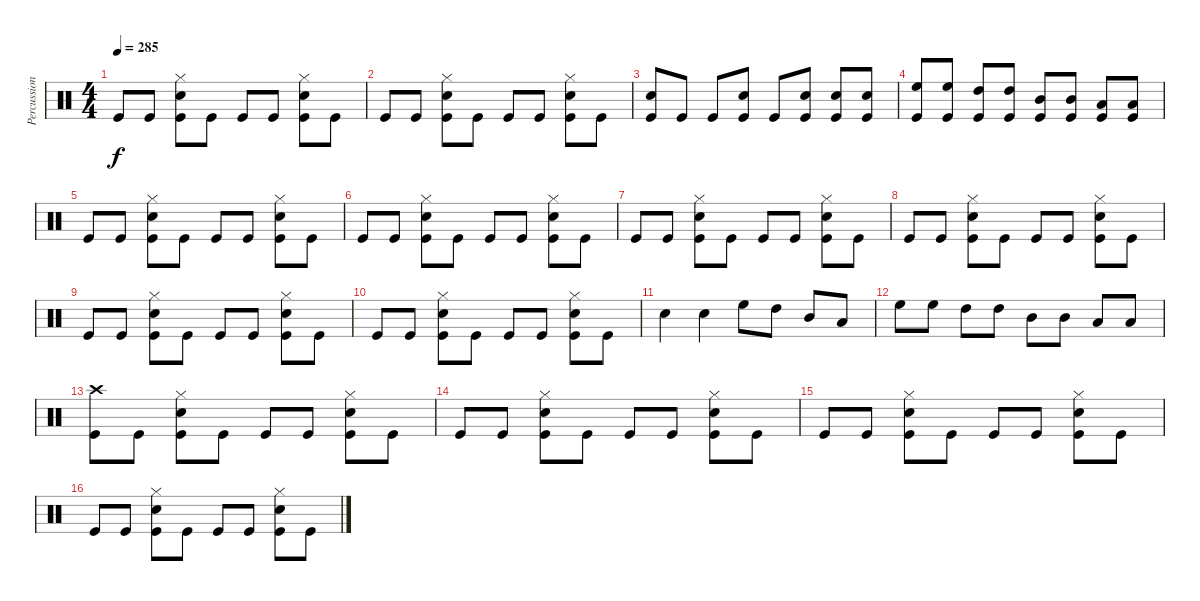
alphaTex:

\track ("Percussion" "Percussion") {instrument percussion}
\staff {score}
\articulation defaults
\ts (4 4)
\tempo 285
\clef neutral
\ks c "Kick (hit)".8{dy f} "Kick (hit)".8
("Snare (hit) 2" "Hi-Hat (closed)" "Kick (hit)").8 "Kick (hit)".8 "Kick (hit)".8 "Kick (hit)".8 ("Snare (hit) 2" "Hi-Hat (closed)" "Kick (hit)").8 "Kick (hit)".8 |
"Kick (hit)".8 "Kick (hit)".8 ("Snare (hit) 2" "Hi-Hat (closed)" "Kick (hit)").8 "Kick (hit)".8 "Kick (hit)".8 "Kick (hit)".8 ("Snare (hit) 2" "Hi-Hat (closed)" "Kick (hit)").8 "Kick (hit)".8 |
("Snare (hit) 2" "Kick (hit)").8 "Kick (hit)".8 "Kick (hit)".8 ("Snare (hit) 2" "Kick (hit)").8 "Kick (hit)".8 ("Snare (hit) 2" "Kick (hit)").8 ("Snare (hit) 2" "Kick (hit)").8 ("Snare (hit) 2" "Kick (hit)").8 |
("High Floor Tom (hit)" "Kick (hit)").8 ("High Floor Tom (hit)" "Kick (hit)").8 ("High Tom (hit)" "Kick (hit)").8 ("High Tom (hit)" "Kick (hit)").8 ("Mid Tom (hit)" "Kick (hit)").8 ("Mid Tom (hit)" "Kick (hit)").8 ("Low Tom (hit)" "Kick (hit)").8 ("Low Tom (hit)" "Kick (hit)").8 |
"Kick (hit)".8 "Kick (hit)".8 ("Snare (hit) 2" "Hi-Hat (closed)" "Kick (hit)").8 "Kick (hit)".8 "Kick (hit)".8 "Kick (hit)".8 ("Snare (hit) 2" "Hi-Hat (closed)" "Kick (hit)").8 "Kick (hit)".8 |
"Kick (hit)".8 "Kick (hit)".8 ("Snare (hit) 2" "Hi-Hat (closed)" "Kick (hit)").8 "Kick (hit)".8 "Kick (hit)".8 "Kick (hit)".8 ("Snare (hit) 2" "Hi-Hat (closed)" "Kick (hit)").8 "Kick (hit)".8 |
"Kick (hit)".8 "Kick (hit)".8 ("Snare (hit) 2" "Hi-Hat (closed)" "Kick (hit)").8 "Kick (hit)".8 "Kick (hit)".8 "Kick (hit)".8 ("Snare (hit) 2" "Hi-Hat (closed)" "Kick (hit)").8 "Kick (hit)".8 |
"Kick (hit)".8 "Kick (hit)".8 ("Snare (hit) 2" "Hi-Hat (closed)" "Kick (hit)").8 "Kick (hit)".8 "Kick (hit)".8 "Kick (hit)".8 ("Snare (hit) 2" "Hi-Hat (closed)" "Kick (hit)").8 "Kick (hit)".8 |
"Kick (hit)".8 "Kick (hit)".8 ("Snare (hit) 2" "Hi-Hat (closed)" "Kick (hit)").8 "Kick (hit)".8 "Kick (hit)".8 "Kick (hit)".8 ("Snare (hit) 2" "Hi-Hat (closed)" "Kick (hit)").8 "Kick (hit)".8 |
"Kick (hit)".8 "Kick (hit)".8 ("Snare (hit) 2" "Hi-Hat (closed)" "Kick (hit)").8 "Kick (hit)".8 "Kick (hit)".8 "Kick (hit)".8 ("Snare (hit) 2" "Hi-Hat (closed)" "Kick (hit)").8 "Kick (hit)".8 |
"Snare (hit) 2".4 "Snare (hit) 2".4 "High Floor Tom (hit)".8 "High Tom (hit)".8 "Mid Tom (hit)".8 "Low Tom (hit)".8 |
"High Floor Tom (hit)".8 "High Floor Tom (hit)".8 "High Tom (hit)".8 "High Tom (hit)".8 "Mid Tom (hit)".8 "Mid Tom (hit)".8 "Low Tom (hit)".8 "Low Tom (hit)".8 |
("Crash high (hit)" "Kick (hit)").8 "Kick (hit)".8 ("Snare (hit) 2" "Hi-Hat (closed)" "Kick (hit)").8 "Kick (hit)".8 "Kick (hit)".8 "Kick (hit)".8 ("Snare (hit) 2" "Hi-Hat (closed)" "Kick (hit)").8 "Kick (hit)".8 |
"Kick (hit)".8 "Kick (hit)".8 ("Snare (hit) 2" "Hi-Hat (closed)" "Kick (hit)").8 "Kick (hit)".8 "Kick (hit)".8 "Kick (hit)".8 ("Snare (hit) 2" "Hi-Hat (closed)" "Kick (hit)").8 "Kick (hit)".8 |
"Kick (hit)".8 "Kick (hit)".8 ("Snare (hit) 2" "Hi-Hat (closed)" "Kick (hit)").8 "Kick (hit)".8 "Kick (hit)".8 "Kick (hit)".8 ("Snare (hit) 2" "Hi-Hat (closed)" "Kick (hit)").8 "Kick (hit)".8 |
"Kick (hit)".8 "Kick (hit)".8 ("Snare (hit) 2" "Hi-Hat (closed)" "Kick (hit)").8 "Kick (hit)".8 "Kick (hit)".8 "Kick (hit)".8 ("Snare (hit) 2" "Hi-Hat (closed)" "Kick (hit)").8 "Kick (hit)".8
